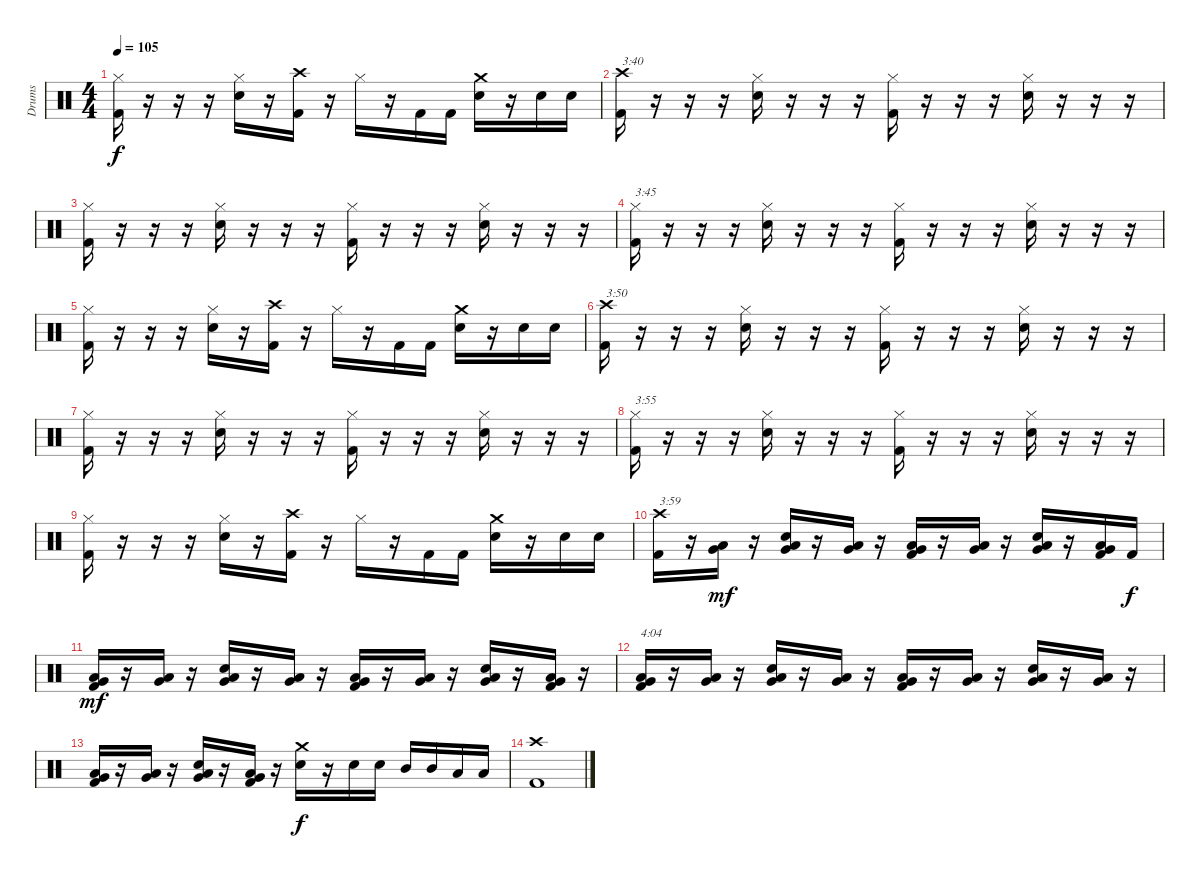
\track ("Drums" "Drums") {instrument percussion}
\staff {score}
\articulation defaults
\ts (4 4)
\tempo 105
\clef neutral
\ks c
("Hi-Hat (closed)" "Kick (hit) 2").16{dy f} r.16 r.16 r.16 ("Hi-Hat (closed)" "Electric Snare (hit)").16 r.16 ("Crash high (hit)" "Kick (hit) 2").16 r.16 "Hi-Hat (closed)".16 r.16 "Kick (hit) 2".16 "Kick (hit) 2".16 ("Crash medium (hit)" "Electric Snare (hit)").16 r.16 "Electric Snare (hit)".16 "Electric Snare (hit)".16 |
("Crash high (hit)" "Kick (hit) 2").16{txt "3:40"} r.16 r.16 r.16 ("Hi-Hat (closed)" "Electric Snare (hit)").16 r.16 r.16 r.16 ("Hi-Hat (closed)" "Kick (hit) 2").16 r.16 r.16 r.16 ("Hi-Hat (closed)" "Electric Snare (hit)").16 r.16 r.16 r.16 |
("Hi-Hat (closed)" "Kick (hit) 2").16 r.16 r.16 r.16 ("Hi-Hat (closed)" "Electric Snare (hit)").16 r.16 r.16 r.16 ("Hi-Hat (closed)" "Kick (hit) 2").16 r.16 r.16 r.16 ("Hi-Hat (closed)" "Electric Snare (hit)").16 r.16 r.16 r.16 |
("Hi-Hat (closed)" "Kick (hit) 2").16{txt "3:45"} r.16 r.16 r.16 ("Hi-Hat (closed)" "Electric Snare (hit)").16 r.16 r.16 r.16 ("Hi-Hat (closed)" "Kick (hit) 2").16 r.16 r.16 r.16 ("Hi-Hat (closed)" "Electric Snare (hit)").16 r.16 r.16 r.16 |
("Hi-Hat (closed)" "Kick (hit) 2").16 r.16 r.16 r.16 ("Hi-Hat (closed)" "Electric Snare (hit)").16 r.16 ("Crash high (hit)" "Kick (hit) 2").16 r.16 "Hi-Hat (closed)".16 r.16 "Kick (hit) 2".16 "Kick (hit) 2".16 ("Crash medium (hit)" "Electric Snare (hit)").16 r.16 "Electric Snare (hit)".16 "Electric Snare (hit)".16 |
("Crash high (hit)" "Kick (hit) 2").16{txt "3:50"} r.16 r.16 r.16 ("Hi-Hat (closed)" "Electric Snare (hit)").16 r.16 r.16 r.16 ("Hi-Hat (closed)" "Kick (hit) 2").16 r.16 r.16 r.16 ("Hi-Hat (closed)" "Electric Snare (hit)").16 r.16 r.16 r.16 |
("Hi-Hat (closed)" "Kick (hit) 2").16 r.16 r.16 r.16 ("Hi-Hat (closed)" "Electric Snare (hit)").16 r.16 r.16 r.16 ("Hi-Hat (closed)" "Kick (hit) 2").16 r.16 r.16 r.16 ("Hi-Hat (closed)" "Electric Snare (hit)").16 r.16 r.16 r.16 |
("Hi-Hat (closed)" "Kick (hit) 2").16{txt "3:55"} r.16 r.16 r.16 ("Hi-Hat (closed)" "Electric Snare (hit)").16 r.16 r.16 r.16 ("Hi-Hat (closed)" "Kick (hit) 2").16 r.16 r.16 r.16 ("Hi-Hat (closed)" "Electric Snare (hit)").16 r.16 r.16 r.16 |
("Hi-Hat (closed)" "Kick (hit) 2").16 r.16 r.16 r.16 ("Hi-Hat (closed)" "Electric Snare (hit)").16 r.16 ("Crash high (hit)" "Kick (hit) 2").16 r.16 "Hi-Hat (closed)".16 r.16 "Kick (hit) 2".16 "Kick (hit) 2".16 ("Crash medium (hit)" "Electric Snare (hit)").16 r.16 "Electric Snare (hit)".16 "Electric Snare (hit)".16 |
("Crash high (hit)" "Kick (hit) 2").16{txt "3:59"} r.16 ("Very Low Tom (hit)" "Low Floor Tom (hit)").16{dy mf} r.16 ("Very Low Tom (hit)" "Low Floor Tom (hit)" "Electric Snare (hit)").16 r.16 ("Very Low Tom (hit)" "Low Floor Tom (hit)").16 r.16 ("Very Low Tom (hit)" "Low Floor Tom (hit)" "Kick (hit) 2").16 r.16 ("Very Low Tom (hit)" "Low Floor Tom (hit)").16 r.16 ("Very Low Tom (hit)" "Low Floor Tom (hit)" "Electric Snare (hit)").16 r.16 ("Very Low Tom (hit)" "Low Floor Tom (hit)" "Kick (hit) 2").16 "Kick (hit) 2".16{dy f} |
("Very Low Tom (hit)" "Low Floor Tom (hit)" "Kick (hit) 2").16{dy mf} r.16 ("Very Low Tom (hit)" "Low Floor Tom (hit)").16 r.16 ("Very Low Tom (hit)" "Low Floor Tom (hit)" "Electric Snare (hit)").16 r.16 ("Very Low Tom (hit)" "Low Floor Tom (hit)").16 r.16 ("Very Low Tom (hit)" "Low Floor Tom (hit)" "Kick (hit) 2").16 r.16 ("Very Low Tom (hit)" "Low Floor Tom (hit)").16 r.16 ("Very Low Tom (hit)" "Low Floor Tom (hit)" "Electric Snare (hit)").16 r.16 ("Very Low Tom (hit)" "Low Floor Tom (hit)" "Kick (hit) 2").16 r.16 |
("Very Low Tom (hit)" "Low Floor Tom (hit)" "Kick (hit) 2").16{txt "4:04"} r.16 ("Very Low Tom (hit)" "Low Floor Tom (hit)").16 r.16 ("Very Low Tom (hit)" "Low Floor Tom (hit)" "Electric Snare (hit)").16 r.16 ("Very Low Tom (hit)" "Low Floor Tom (hit)").16 r.16 ("Very Low Tom (hit)" "Low Floor Tom (hit)" "Kick (hit) 2").16 r.16 ("Very Low Tom (hit)" "Low Floor Tom (hit)").16 r.16 ("Very Low Tom (hit)" "Low Floor Tom (hit)" "Electric Snare (hit)").16 r.16 ("Very Low Tom (hit)" "Low Floor Tom (hit)").16 r.16 |
("Very Low Tom (hit)" "Low Floor Tom (hit)" "Kick (hit) 2").16 r.16 ("Very Low Tom (hit)" "Low Floor Tom (hit)").16 r.16 ("Very Low Tom (hit)" "Low Floor Tom (hit)" "Electric Snare (hit)").16 r.16 ("Very Low Tom (hit)" "Low Floor Tom (hit)" "Kick (hit) 2").16 r.16 ("Crash medium (hit)" "Electric Snare (hit)").16{dy f} r.16 "Electric Snare (hit)".16 "Electric Snare (hit)".16 "Mid Tom (hit)".16 "Mid Tom (hit)".16 "Low Tom (hit)".16 "Low Tom (hit)".16 |
("Crash high (hit)" "Kick (hit) 2").1
